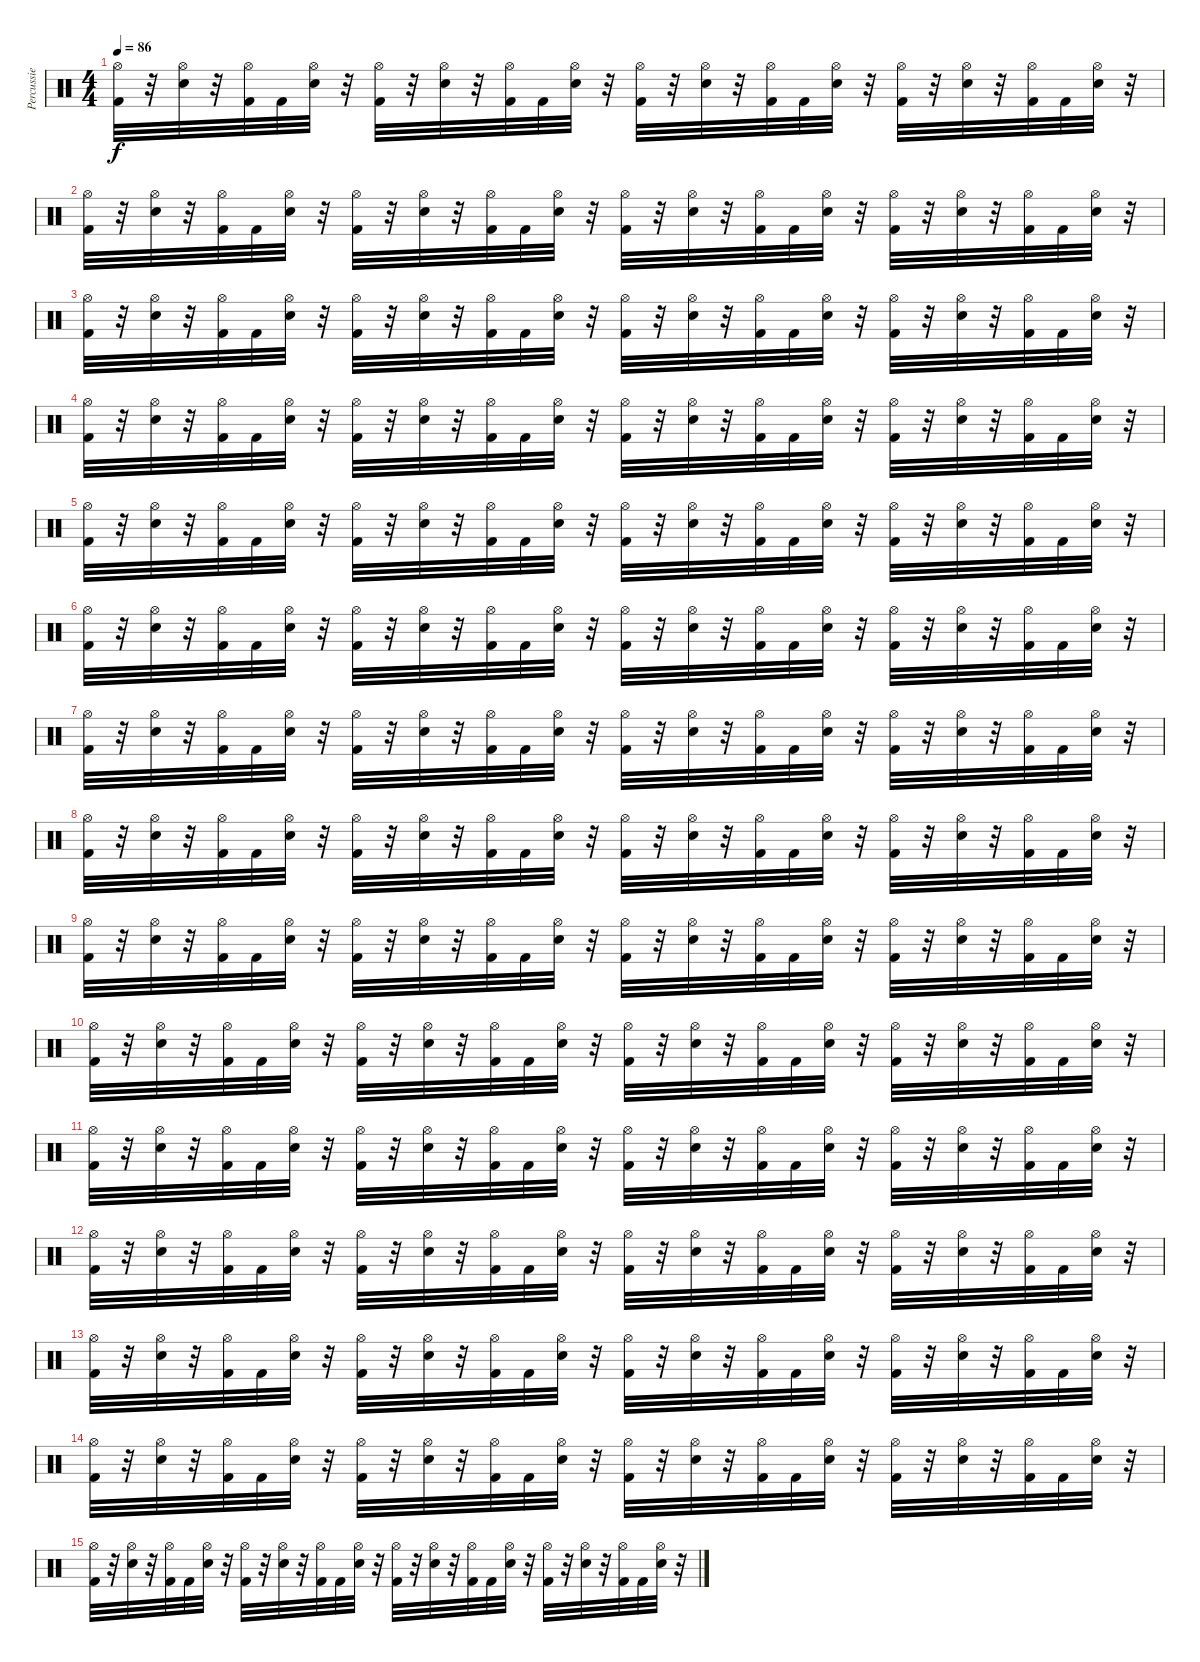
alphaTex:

\track ("Percussie" "Percussie") {instrument percussion}
\staff {score}
\articulation defaults
\ts (4 4)
\tempo 86
\clef neutral
\ks c
("Hi-Hat (open)" "Kick (hit) 2").32{dy f} r.32 ("Hi-Hat (open)" "Electric Snare (hit)").32 r.32 ("Hi-Hat (open)" "Kick (hit) 2").32 "Kick (hit) 2".32 ("Hi-Hat (open)" "Electric Snare (hit)").32 r.32 ("Hi-Hat (open)" "Kick (hit) 2").32 r.32 ("Hi-Hat (open)" "Electric Snare (hit)").32 r.32 ("Hi-Hat (open)" "Kick (hit) 2").32 "Kick (hit) 2".32 ("Hi-Hat (open)" "Electric Snare (hit)").32 r.32 ("Hi-Hat (open)" "Kick (hit) 2").32 r.32 ("Hi-Hat (open)" "Electric Snare (hit)").32 r.32 ("Hi-Hat (open)" "Kick (hit) 2").32 "Kick (hit) 2".32 ("Hi-Hat (open)" "Electric Snare (hit)").32 r.32 ("Hi-Hat (open)" "Kick (hit) 2").32 r.32 ("Hi-Hat (open)" "Electric Snare (hit)").32 r.32 ("Hi-Hat (open)" "Kick (hit) 2").32 "Kick (hit) 2".32 ("Hi-Hat (open)" "Electric Snare (hit)").32 r.32 |
("Hi-Hat (open)" "Kick (hit) 2").32 r.32 ("Hi-Hat (open)" "Electric Snare (hit)").32 r.32 ("Hi-Hat (open)" "Kick (hit) 2").32 "Kick (hit) 2".32 ("Hi-Hat (open)" "Electric Snare (hit)").32 r.32 ("Hi-Hat (open)" "Kick (hit) 2").32 r.32 ("Hi-Hat (open)" "Electric Snare (hit)").32 r.32 ("Hi-Hat (open)" "Kick (hit) 2").32 "Kick (hit) 2".32 ("Hi-Hat (open)" "Electric Snare (hit)").32 r.32 ("Hi-Hat (open)" "Kick (hit) 2").32 r.32 ("Hi-Hat (open)" "Electric Snare (hit)").32 r.32 ("Hi-Hat (open)" "Kick (hit) 2").32 "Kick (hit) 2".32 ("Hi-Hat (open)" "Electric Snare (hit)").32 r.32 ("Hi-Hat (open)" "Kick (hit) 2").32 r.32 ("Hi-Hat (open)" "Electric Snare (hit)").32 r.32 ("Hi-Hat (open)" "Kick (hit) 2").32 "Kick (hit) 2".32 ("Hi-Hat (open)" "Electric Snare (hit)").32 r.32 |
("Hi-Hat (open)" "Kick (hit) 2").32 r.32 ("Hi-Hat (open)" "Electric Snare (hit)").32 r.32 ("Hi-Hat (open)" "Kick (hit) 2").32 "Kick (hit) 2".32 ("Hi-Hat (open)" "Electric Snare (hit)").32 r.32 ("Hi-Hat (open)" "Kick (hit) 2").32 r.32 ("Hi-Hat (open)" "Electric Snare (hit)").32 r.32 ("Hi-Hat (open)" "Kick (hit) 2").32 "Kick (hit) 2".32 ("Hi-Hat (open)" "Electric Snare (hit)").32 r.32 ("Hi-Hat (open)" "Kick (hit) 2").32 r.32 ("Hi-Hat (open)" "Electric Snare (hit)").32 r.32 ("Hi-Hat (open)" "Kick (hit) 2").32 "Kick (hit) 2".32 ("Hi-Hat (open)" "Electric Snare (hit)").32 r.32 ("Hi-Hat (open)" "Kick (hit) 2").32 r.32 ("Hi-Hat (open)" "Electric Snare (hit)").32 r.32 ("Hi-Hat (open)" "Kick (hit) 2").32 "Kick (hit) 2".32 ("Hi-Hat (open)" "Electric Snare (hit)").32 r.32 |
("Hi-Hat (open)" "Kick (hit) 2").32 r.32 ("Hi-Hat (open)" "Electric Snare (hit)").32 r.32 ("Hi-Hat (open)" "Kick (hit) 2").32 "Kick (hit) 2".32 ("Hi-Hat (open)" "Electric Snare (hit)").32 r.32 ("Hi-Hat (open)" "Kick (hit) 2").32 r.32 ("Hi-Hat (open)" "Electric Snare (hit)").32 r.32 ("Hi-Hat (open)" "Kick (hit) 2").32 "Kick (hit) 2".32 ("Hi-Hat (open)" "Electric Snare (hit)").32 r.32 ("Hi-Hat (open)" "Kick (hit) 2").32 r.32 ("Hi-Hat (open)" "Electric Snare (hit)").32 r.32 ("Hi-Hat (open)" "Kick (hit) 2").32 "Kick (hit) 2".32 ("Hi-Hat (open)" "Electric Snare (hit)").32 r.32 ("Hi-Hat (open)" "Kick (hit) 2").32 r.32 ("Hi-Hat (open)" "Electric Snare (hit)").32 r.32 ("Hi-Hat (open)" "Kick (hit) 2").32 "Kick (hit) 2".32 ("Hi-Hat (open)" "Electric Snare (hit)").32 r.32 |
("Hi-Hat (open)" "Kick (hit) 2").32 r.32 ("Hi-Hat (open)" "Electric Snare (hit)").32 r.32 ("Hi-Hat (open)" "Kick (hit) 2").32 "Kick (hit) 2".32 ("Hi-Hat (open)" "Electric Snare (hit)").32 r.32 ("Hi-Hat (open)" "Kick (hit) 2").32 r.32 ("Hi-Hat (open)" "Electric Snare (hit)").32 r.32 ("Hi-Hat (open)" "Kick (hit) 2").32 "Kick (hit) 2".32 ("Hi-Hat (open)" "Electric Snare (hit)").32 r.32 ("Hi-Hat (open)" "Kick (hit) 2").32 r.32 ("Hi-Hat (open)" "Electric Snare (hit)").32 r.32 ("Hi-Hat (open)" "Kick (hit) 2").32 "Kick (hit) 2".32 ("Hi-Hat (open)" "Electric Snare (hit)").32 r.32 ("Hi-Hat (open)" "Kick (hit) 2").32 r.32 ("Hi-Hat (open)" "Electric Snare (hit)").32 r.32 ("Hi-Hat (open)" "Kick (hit) 2").32 "Kick (hit) 2".32 ("Hi-Hat (open)" "Electric Snare (hit)").32 r.32 |
("Hi-Hat (open)" "Kick (hit) 2").32 r.32 ("Hi-Hat (open)" "Electric Snare (hit)").32 r.32 ("Hi-Hat (open)" "Kick (hit) 2").32 "Kick (hit) 2".32 ("Hi-Hat (open)" "Electric Snare (hit)").32 r.32 ("Hi-Hat (open)" "Kick (hit) 2").32 r.32 ("Hi-Hat (open)" "Electric Snare (hit)").32 r.32 ("Hi-Hat (open)" "Kick (hit) 2").32 "Kick (hit) 2".32 ("Hi-Hat (open)" "Electric Snare (hit)").32 r.32 ("Hi-Hat (open)" "Kick (hit) 2").32 r.32 ("Hi-Hat (open)" "Electric Snare (hit)").32 r.32 ("Hi-Hat (open)" "Kick (hit) 2").32 "Kick (hit) 2".32 ("Hi-Hat (open)" "Electric Snare (hit)").32 r.32 ("Hi-Hat (open)" "Kick (hit) 2").32 r.32 ("Hi-Hat (open)" "Electric Snare (hit)").32 r.32 ("Hi-Hat (open)" "Kick (hit) 2").32 "Kick (hit) 2".32 ("Hi-Hat (open)" "Electric Snare (hit)").32 r.32 |
("Hi-Hat (open)" "Kick (hit) 2").32 r.32 ("Hi-Hat (open)" "Electric Snare (hit)").32 r.32 ("Hi-Hat (open)" "Kick (hit) 2").32 "Kick (hit) 2".32 ("Hi-Hat (open)" "Electric Snare (hit)").32 r.32 ("Hi-Hat (open)" "Kick (hit) 2").32 r.32 ("Hi-Hat (open)" "Electric Snare (hit)").32 r.32 ("Hi-Hat (open)" "Kick (hit) 2").32 "Kick (hit) 2".32 ("Hi-Hat (open)" "Electric Snare (hit)").32 r.32 ("Hi-Hat (open)" "Kick (hit) 2").32 r.32 ("Hi-Hat (open)" "Electric Snare (hit)").32 r.32 ("Hi-Hat (open)" "Kick (hit) 2").32 "Kick (hit) 2".32 ("Hi-Hat (open)" "Electric Snare (hit)").32 r.32 ("Hi-Hat (open)" "Kick (hit) 2").32 r.32 ("Hi-Hat (open)" "Electric Snare (hit)").32 r.32 ("Hi-Hat (open)" "Kick (hit) 2").32 "Kick (hit) 2".32 ("Hi-Hat (open)" "Electric Snare (hit)").32 r.32 |
("Hi-Hat (open)" "Kick (hit) 2").32 r.32 ("Hi-Hat (open)" "Electric Snare (hit)").32 r.32 ("Hi-Hat (open)" "Kick (hit) 2").32 "Kick (hit) 2".32 ("Hi-Hat (open)" "Electric Snare (hit)").32 r.32 ("Hi-Hat (open)" "Kick (hit) 2").32 r.32 ("Hi-Hat (open)" "Electric Snare (hit)").32 r.32 ("Hi-Hat (open)" "Kick (hit) 2").32 "Kick (hit) 2".32 ("Hi-Hat (open)" "Electric Snare (hit)").32 r.32 ("Hi-Hat (open)" "Kick (hit) 2").32 r.32 ("Hi-Hat (open)" "Electric Snare (hit)").32 r.32 ("Hi-Hat (open)" "Kick (hit) 2").32 "Kick (hit) 2".32 ("Hi-Hat (open)" "Electric Snare (hit)").32 r.32 ("Hi-Hat (open)" "Kick (hit) 2").32 r.32 ("Hi-Hat (open)" "Electric Snare (hit)").32 r.32 ("Hi-Hat (open)" "Kick (hit) 2").32 "Kick (hit) 2".32 ("Hi-Hat (open)" "Electric Snare (hit)").32 r.32 |
("Hi-Hat (open)" "Kick (hit) 2").32 r.32 ("Hi-Hat (open)" "Electric Snare (hit)").32 r.32 ("Hi-Hat (open)" "Kick (hit) 2").32 "Kick (hit) 2".32 ("Hi-Hat (open)" "Electric Snare (hit)").32 r.32 ("Hi-Hat (open)" "Kick (hit) 2").32 r.32 ("Hi-Hat (open)" "Electric Snare (hit)").32 r.32 ("Hi-Hat (open)" "Kick (hit) 2").32 "Kick (hit) 2".32 ("Hi-Hat (open)" "Electric Snare (hit)").32 r.32 ("Hi-Hat (open)" "Kick (hit) 2").32 r.32 ("Hi-Hat (open)" "Electric Snare (hit)").32 r.32 ("Hi-Hat (open)" "Kick (hit) 2").32 "Kick (hit) 2".32 ("Hi-Hat (open)" "Electric Snare (hit)").32 r.32 ("Hi-Hat (open)" "Kick (hit) 2").32 r.32 ("Hi-Hat (open)" "Electric Snare (hit)").32 r.32 ("Hi-Hat (open)" "Kick (hit) 2").32 "Kick (hit) 2".32 ("Hi-Hat (open)" "Electric Snare (hit)").32 r.32 |
("Hi-Hat (open)" "Kick (hit) 2").32 r.32 ("Hi-Hat (open)" "Electric Snare (hit)").32 r.32 ("Hi-Hat (open)" "Kick (hit) 2").32 "Kick (hit) 2".32 ("Hi-Hat (open)" "Electric Snare (hit)").32 r.32 ("Hi-Hat (open)" "Kick (hit) 2").32 r.32 ("Hi-Hat (open)" "Electric Snare (hit)").32 r.32 ("Hi-Hat (open)" "Kick (hit) 2").32 "Kick (hit) 2".32 ("Hi-Hat (open)" "Electric Snare (hit)").32 r.32 ("Hi-Hat (open)" "Kick (hit) 2").32 r.32 ("Hi-Hat (open)" "Electric Snare (hit)").32 r.32 ("Hi-Hat (open)" "Kick (hit) 2").32 "Kick (hit) 2".32 ("Hi-Hat (open)" "Electric Snare (hit)").32 r.32 ("Hi-Hat (open)" "Kick (hit) 2").32 r.32 ("Hi-Hat (open)" "Electric Snare (hit)").32 r.32 ("Hi-Hat (open)" "Kick (hit) 2").32 "Kick (hit) 2".32 ("Hi-Hat (open)" "Electric Snare (hit)").32 r.32 |
("Hi-Hat (open)" "Kick (hit) 2").32 r.32 ("Hi-Hat (open)" "Electric Snare (hit)").32 r.32 ("Hi-Hat (open)" "Kick (hit) 2").32 "Kick (hit) 2".32 ("Hi-Hat (open)" "Electric Snare (hit)").32 r.32 ("Hi-Hat (open)" "Kick (hit) 2").32 r.32 ("Hi-Hat (open)" "Electric Snare (hit)").32 r.32 ("Hi-Hat (open)" "Kick (hit) 2").32 "Kick (hit) 2".32 ("Hi-Hat (open)" "Electric Snare (hit)").32 r.32 ("Hi-Hat (open)" "Kick (hit) 2").32 r.32 ("Hi-Hat (open)" "Electric Snare (hit)").32 r.32 ("Hi-Hat (open)" "Kick (hit) 2").32 "Kick (hit) 2".32 ("Hi-Hat (open)" "Electric Snare (hit)").32 r.32 ("Hi-Hat (open)" "Kick (hit) 2").32 r.32 ("Hi-Hat (open)" "Electric Snare (hit)").32 r.32 ("Hi-Hat (open)" "Kick (hit) 2").32 "Kick (hit) 2".32 ("Hi-Hat (open)" "Electric Snare (hit)").32 r.32 |
("Hi-Hat (open)" "Kick (hit) 2").32 r.32 ("Hi-Hat (open)" "Electric Snare (hit)").32 r.32 ("Hi-Hat (open)" "Kick (hit) 2").32 "Kick (hit) 2".32 ("Hi-Hat (open)" "Electric Snare (hit)").32 r.32 ("Hi-Hat (open)" "Kick (hit) 2").32 r.32 ("Hi-Hat (open)" "Electric Snare (hit)").32 r.32 ("Hi-Hat (open)" "Kick (hit) 2").32 "Kick (hit) 2".32 ("Hi-Hat (open)" "Electric Snare (hit)").32 r.32 ("Hi-Hat (open)" "Kick (hit) 2").32 r.32 ("Hi-Hat (open)" "Electric Snare (hit)").32 r.32 ("Hi-Hat (open)" "Kick (hit) 2").32 "Kick (hit) 2".32 ("Hi-Hat (open)" "Electric Snare (hit)").32 r.32 ("Hi-Hat (open)" "Kick (hit) 2").32 r.32 ("Hi-Hat (open)" "Electric Snare (hit)").32 r.32 ("Hi-Hat (open)" "Kick (hit) 2").32 "Kick (hit) 2".32 ("Hi-Hat (open)" "Electric Snare (hit)").32 r.32 |
("Hi-Hat (open)" "Kick (hit) 2").32 r.32 ("Hi-Hat (open)" "Electric Snare (hit)").32 r.32 ("Hi-Hat (open)" "Kick (hit) 2").32 "Kick (hit) 2".32 ("Hi-Hat (open)" "Electric Snare (hit)").32 r.32 ("Hi-Hat (open)" "Kick (hit) 2").32 r.32 ("Hi-Hat (open)" "Electric Snare (hit)").32 r.32 ("Hi-Hat (open)" "Kick (hit) 2").32 "Kick (hit) 2".32 ("Hi-Hat (open)" "Electric Snare (hit)").32 r.32 ("Hi-Hat (open)" "Kick (hit) 2").32 r.32 ("Hi-Hat (open)" "Electric Snare (hit)").32 r.32 ("Hi-Hat (open)" "Kick (hit) 2").32 "Kick (hit) 2".32 ("Hi-Hat (open)" "Electric Snare (hit)").32 r.32 ("Hi-Hat (open)" "Kick (hit) 2").32 r.32 ("Hi-Hat (open)" "Electric Snare (hit)").32 r.32 ("Hi-Hat (open)" "Kick (hit) 2").32 "Kick (hit) 2".32 ("Hi-Hat (open)" "Electric Snare (hit)").32 r.32 |
("Hi-Hat (open)" "Kick (hit) 2").32 r.32 ("Hi-Hat (open)" "Electric Snare (hit)").32 r.32 ("Hi-Hat (open)" "Kick (hit) 2").32 "Kick (hit) 2".32 ("Hi-Hat (open)" "Electric Snare (hit)").32 r.32 ("Hi-Hat (open)" "Kick (hit) 2").32 r.32 ("Hi-Hat (open)" "Electric Snare (hit)").32 r.32 ("Hi-Hat (open)" "Kick (hit) 2").32 "Kick (hit) 2".32 ("Hi-Hat (open)" "Electric Snare (hit)").32 r.32 ("Hi-Hat (open)" "Kick (hit) 2").32 r.32 ("Hi-Hat (open)" "Electric Snare (hit)").32 r.32 ("Hi-Hat (open)" "Kick (hit) 2").32 "Kick (hit) 2".32 ("Hi-Hat (open)" "Electric Snare (hit)").32 r.32 ("Hi-Hat (open)" "Kick (hit) 2").32 r.32 ("Hi-Hat (open)" "Electric Snare (hit)").32 r.32 ("Hi-Hat (open)" "Kick (hit) 2").32 "Kick (hit) 2".32 ("Hi-Hat (open)" "Electric Snare (hit)").32 r.32 |
("Hi-Hat (open)" "Kick (hit) 2").32 r.32 ("Hi-Hat (open)" "Electric Snare (hit)").32 r.32 ("Hi-Hat (open)" "Kick (hit) 2").32 "Kick (hit) 2".32 ("Hi-Hat (open)" "Electric Snare (hit)").32 r.32 ("Hi-Hat (open)" "Kick (hit) 2").32 r.32 ("Hi-Hat (open)" "Electric Snare (hit)").32 r.32 ("Hi-Hat (open)" "Kick (hit) 2").32 "Kick (hit) 2".32 ("Hi-Hat (open)" "Electric Snare (hit)").32 r.32 ("Hi-Hat (open)" "Kick (hit) 2").32 r.32 ("Hi-Hat (open)" "Electric Snare (hit)").32 r.32 ("Hi-Hat (open)" "Kick (hit) 2").32 "Kick (hit) 2".32 ("Hi-Hat (open)" "Electric Snare (hit)").32 r.32 ("Hi-Hat (open)" "Kick (hit) 2").32 r.32 ("Hi-Hat (open)" "Electric Snare (hit)").32 r.32 ("Hi-Hat (open)" "Kick (hit) 2").32 "Kick (hit) 2".32 ("Hi-Hat (open)" "Electric Snare (hit)").32 r.32
